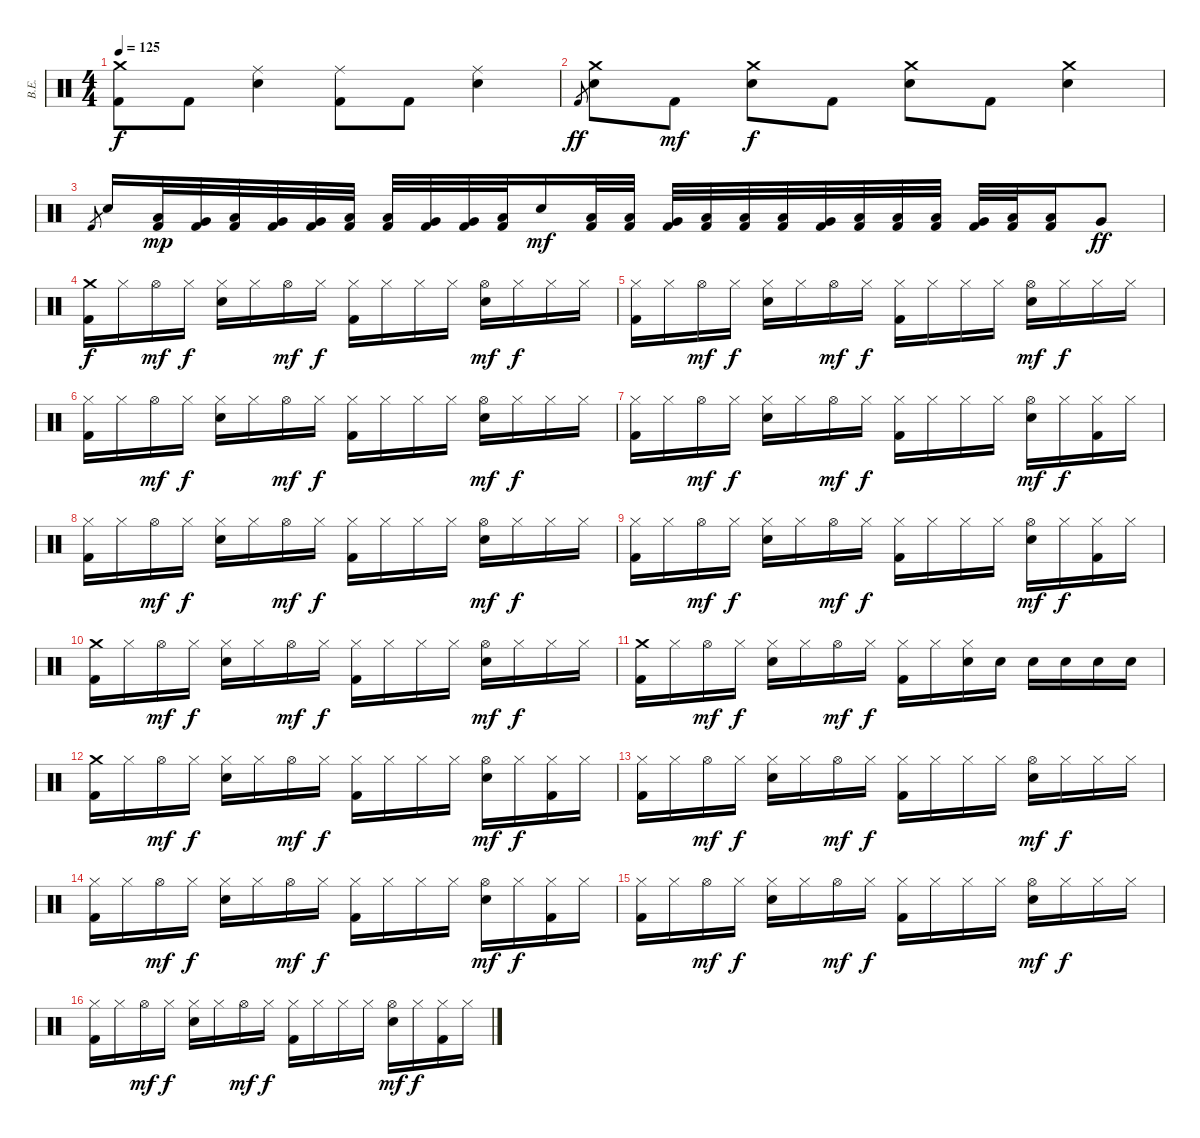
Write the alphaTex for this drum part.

\track ("В.Е." "В.Е.") {instrument percussion}
\staff {score}
\articulation defaults
\ts (4 4)
\tempo 125
\clef neutral
\ks c
("Crash medium (hit)" "Kick (hit) 2").8{dy f} "Kick (hit) 2".8 ("Ride (middle)" "Electric Snare (hit)").4 ("Ride (middle)" "Kick (hit) 2").8 "Kick (hit) 2".8 ("Ride (middle)" "Electric Snare (hit)").4 |
"Kick (hit) 2".8{gr dy ff} ("Crash medium (hit)" "Electric Snare (hit)").8 "Kick (hit) 2".8{dy mf} ("Crash medium (hit)" "Electric Snare (hit)").8{dy f} "Kick (hit) 2".8 ("Crash medium (hit)" "Electric Snare (hit)").8 "Kick (hit) 2".8 ("Crash medium (hit)" "Electric Snare (hit)").4 |
"Kick (hit) 2".8{gr} "Electric Snare (hit)".16 ("Low Tom (hit)" "Kick (hit) 2").32{dy mp} ("Very Low Tom (hit)" "Kick (hit) 2").32 ("Low Tom (hit)" "Kick (hit) 2").32 ("Very Low Tom (hit)" "Kick (hit) 2").32 ("Very Low Tom (hit)" "Kick (hit) 2").32 ("Low Tom (hit)" "Kick (hit) 2").32 ("Low Tom (hit)" "Kick (hit) 2").32 ("Very Low Tom (hit)" "Kick (hit) 2").32 ("Very Low Tom (hit)" "Kick (hit) 2").32 ("Low Tom (hit)" "Kick (hit) 2").32 "Electric Snare (hit)".16{dy mf} ("Low Tom (hit)" "Kick (hit) 2").32 ("Low Tom (hit)" "Kick (hit) 2").32 ("Very Low Tom (hit)" "Kick (hit) 2").32 ("Low Tom (hit)" "Kick (hit) 2").32 ("Low Tom (hit)" "Kick (hit) 2").32 ("Low Tom (hit)" "Kick (hit) 2").32 ("Very Low Tom (hit)" "Kick (hit) 2").32 ("Low Tom (hit)" "Kick (hit) 2").32 ("Low Tom (hit)" "Kick (hit) 2").32 ("Low Tom (hit)" "Kick (hit) 2").32 ("Very Low Tom (hit)" "Kick (hit) 2").32 ("Low Tom (hit)" "Kick (hit) 2").32 ("Low Tom (hit)" "Kick (hit) 2").16 "Very Low Tom (hit)".8{dy ff} |
("Crash medium (hit)" "Kick (hit) 2").16{dy f} "Hi-Hat (closed)".16 "Hi-Hat (open)".16{dy mf} "Hi-Hat (closed)".16{dy f} ("Hi-Hat (closed)" "Electric Snare (hit)").16 "Hi-Hat (closed)".16 "Hi-Hat (open)".16{dy mf} "Hi-Hat (closed)".16{dy f} ("Hi-Hat (closed)" "Kick (hit) 2").16 "Hi-Hat (closed)".16 "Hi-Hat (closed)".16 "Hi-Hat (closed)".16 ("Hi-Hat (open)" "Electric Snare (hit)").16{dy mf} "Hi-Hat (closed)".16{dy f} "Hi-Hat (closed)".16 "Hi-Hat (closed)".16 |
("Hi-Hat (closed)" "Kick (hit) 2").16 "Hi-Hat (closed)".16 "Hi-Hat (open)".16{dy mf} "Hi-Hat (closed)".16{dy f} ("Hi-Hat (closed)" "Electric Snare (hit)").16 "Hi-Hat (closed)".16 "Hi-Hat (open)".16{dy mf} "Hi-Hat (closed)".16{dy f} ("Hi-Hat (closed)" "Kick (hit) 2").16 "Hi-Hat (closed)".16 "Hi-Hat (closed)".16 "Hi-Hat (closed)".16 ("Hi-Hat (open)" "Electric Snare (hit)").16{dy mf} "Hi-Hat (closed)".16{dy f} "Hi-Hat (closed)".16 "Hi-Hat (closed)".16 |
("Hi-Hat (closed)" "Kick (hit) 2").16 "Hi-Hat (closed)".16 "Hi-Hat (open)".16{dy mf} "Hi-Hat (closed)".16{dy f} ("Hi-Hat (closed)" "Electric Snare (hit)").16 "Hi-Hat (closed)".16 "Hi-Hat (open)".16{dy mf} "Hi-Hat (closed)".16{dy f} ("Hi-Hat (closed)" "Kick (hit) 2").16 "Hi-Hat (closed)".16 "Hi-Hat (closed)".16 "Hi-Hat (closed)".16 ("Hi-Hat (open)" "Electric Snare (hit)").16{dy mf} "Hi-Hat (closed)".16{dy f} "Hi-Hat (closed)".16 "Hi-Hat (closed)".16 |
("Hi-Hat (closed)" "Kick (hit) 2").16 "Hi-Hat (closed)".16 "Hi-Hat (open)".16{dy mf} "Hi-Hat (closed)".16{dy f} ("Hi-Hat (closed)" "Electric Snare (hit)").16 "Hi-Hat (closed)".16 "Hi-Hat (open)".16{dy mf} "Hi-Hat (closed)".16{dy f} ("Hi-Hat (closed)" "Kick (hit) 2").16 "Hi-Hat (closed)".16 "Hi-Hat (closed)".16 "Hi-Hat (closed)".16 ("Hi-Hat (open)" "Electric Snare (hit)").16{dy mf} "Hi-Hat (closed)".16{dy f} ("Hi-Hat (closed)" "Kick (hit) 2").16 "Hi-Hat (closed)".16 |
("Hi-Hat (closed)" "Kick (hit) 2").16 "Hi-Hat (closed)".16 "Hi-Hat (open)".16{dy mf} "Hi-Hat (closed)".16{dy f} ("Hi-Hat (closed)" "Electric Snare (hit)").16 "Hi-Hat (closed)".16 "Hi-Hat (open)".16{dy mf} "Hi-Hat (closed)".16{dy f} ("Hi-Hat (closed)" "Kick (hit) 2").16 "Hi-Hat (closed)".16 "Hi-Hat (closed)".16 "Hi-Hat (closed)".16 ("Hi-Hat (open)" "Electric Snare (hit)").16{dy mf} "Hi-Hat (closed)".16{dy f} "Hi-Hat (closed)".16 "Hi-Hat (closed)".16 |
("Hi-Hat (closed)" "Kick (hit) 2").16 "Hi-Hat (closed)".16 "Hi-Hat (open)".16{dy mf} "Hi-Hat (closed)".16{dy f} ("Hi-Hat (closed)" "Electric Snare (hit)").16 "Hi-Hat (closed)".16 "Hi-Hat (open)".16{dy mf} "Hi-Hat (closed)".16{dy f} ("Hi-Hat (closed)" "Kick (hit) 2").16 "Hi-Hat (closed)".16 "Hi-Hat (closed)".16 "Hi-Hat (closed)".16 ("Hi-Hat (open)" "Electric Snare (hit)").16{dy mf} "Hi-Hat (closed)".16{dy f} ("Hi-Hat (closed)" "Kick (hit) 2").16 "Hi-Hat (closed)".16 |
("Crash medium (hit)" "Kick (hit) 2").16 "Hi-Hat (closed)".16 "Hi-Hat (open)".16{dy mf} "Hi-Hat (closed)".16{dy f} ("Hi-Hat (closed)" "Electric Snare (hit)").16 "Hi-Hat (closed)".16 "Hi-Hat (open)".16{dy mf} "Hi-Hat (closed)".16{dy f} ("Hi-Hat (closed)" "Kick (hit) 2").16 "Hi-Hat (closed)".16 "Hi-Hat (closed)".16 "Hi-Hat (closed)".16 ("Hi-Hat (open)" "Electric Snare (hit)").16{dy mf} "Hi-Hat (closed)".16{dy f} "Hi-Hat (closed)".16 "Hi-Hat (closed)".16 |
("Crash medium (hit)" "Kick (hit) 2").16 "Hi-Hat (closed)".16 "Hi-Hat (open)".16{dy mf} "Hi-Hat (closed)".16{dy f} ("Hi-Hat (closed)" "Electric Snare (hit)").16 "Hi-Hat (closed)".16 "Hi-Hat (open)".16{dy mf} "Hi-Hat (closed)".16{dy f} ("Hi-Hat (closed)" "Kick (hit) 2").16 "Hi-Hat (closed)".16 ("Hi-Hat (closed)" "Electric Snare (hit)").16 "Electric Snare (hit)".16 "Electric Snare (hit)".16 "Electric Snare (hit)".16 "Electric Snare (hit)".16 "Electric Snare (hit)".16 |
("Crash medium (hit)" "Kick (hit) 2").16 "Hi-Hat (closed)".16 "Hi-Hat (open)".16{dy mf} "Hi-Hat (closed)".16{dy f} ("Hi-Hat (closed)" "Electric Snare (hit)").16 "Hi-Hat (closed)".16 "Hi-Hat (open)".16{dy mf} "Hi-Hat (closed)".16{dy f} ("Hi-Hat (closed)" "Kick (hit) 2").16 "Hi-Hat (closed)".16 "Hi-Hat (closed)".16 "Hi-Hat (closed)".16 ("Hi-Hat (open)" "Electric Snare (hit)").16{dy mf} "Hi-Hat (closed)".16{dy f} ("Hi-Hat (closed)" "Kick (hit) 2").16 "Hi-Hat (closed)".16 |
("Hi-Hat (closed)" "Kick (hit) 2").16 "Hi-Hat (closed)".16 "Hi-Hat (open)".16{dy mf} "Hi-Hat (closed)".16{dy f} ("Hi-Hat (closed)" "Electric Snare (hit)").16 "Hi-Hat (closed)".16 "Hi-Hat (open)".16{dy mf} "Hi-Hat (closed)".16{dy f} ("Hi-Hat (closed)" "Kick (hit) 2").16 "Hi-Hat (closed)".16 "Hi-Hat (closed)".16 "Hi-Hat (closed)".16 ("Hi-Hat (open)" "Electric Snare (hit)").16{dy mf} "Hi-Hat (closed)".16{dy f} "Hi-Hat (closed)".16 "Hi-Hat (closed)".16 |
("Hi-Hat (closed)" "Kick (hit) 2").16 "Hi-Hat (closed)".16 "Hi-Hat (open)".16{dy mf} "Hi-Hat (closed)".16{dy f} ("Hi-Hat (closed)" "Electric Snare (hit)").16 "Hi-Hat (closed)".16 "Hi-Hat (open)".16{dy mf} "Hi-Hat (closed)".16{dy f} ("Hi-Hat (closed)" "Kick (hit) 2").16 "Hi-Hat (closed)".16 "Hi-Hat (closed)".16 "Hi-Hat (closed)".16 ("Hi-Hat (open)" "Electric Snare (hit)").16{dy mf} "Hi-Hat (closed)".16{dy f} ("Hi-Hat (closed)" "Kick (hit) 2").16 "Hi-Hat (closed)".16 |
("Hi-Hat (closed)" "Kick (hit) 2").16 "Hi-Hat (closed)".16 "Hi-Hat (open)".16{dy mf} "Hi-Hat (closed)".16{dy f} ("Hi-Hat (closed)" "Electric Snare (hit)").16 "Hi-Hat (closed)".16 "Hi-Hat (open)".16{dy mf} "Hi-Hat (closed)".16{dy f} ("Hi-Hat (closed)" "Kick (hit) 2").16 "Hi-Hat (closed)".16 "Hi-Hat (closed)".16 "Hi-Hat (closed)".16 ("Hi-Hat (open)" "Electric Snare (hit)").16{dy mf} "Hi-Hat (closed)".16{dy f} "Hi-Hat (closed)".16 "Hi-Hat (closed)".16 |
("Hi-Hat (closed)" "Kick (hit) 2").16 "Hi-Hat (closed)".16 "Hi-Hat (open)".16{dy mf} "Hi-Hat (closed)".16{dy f} ("Hi-Hat (closed)" "Electric Snare (hit)").16 "Hi-Hat (closed)".16 "Hi-Hat (open)".16{dy mf} "Hi-Hat (closed)".16{dy f} ("Hi-Hat (closed)" "Kick (hit) 2").16 "Hi-Hat (closed)".16 "Hi-Hat (closed)".16 "Hi-Hat (closed)".16 ("Hi-Hat (open)" "Electric Snare (hit)").16{dy mf} "Hi-Hat (closed)".16{dy f} ("Hi-Hat (closed)" "Kick (hit) 2").16 "Hi-Hat (closed)".16
